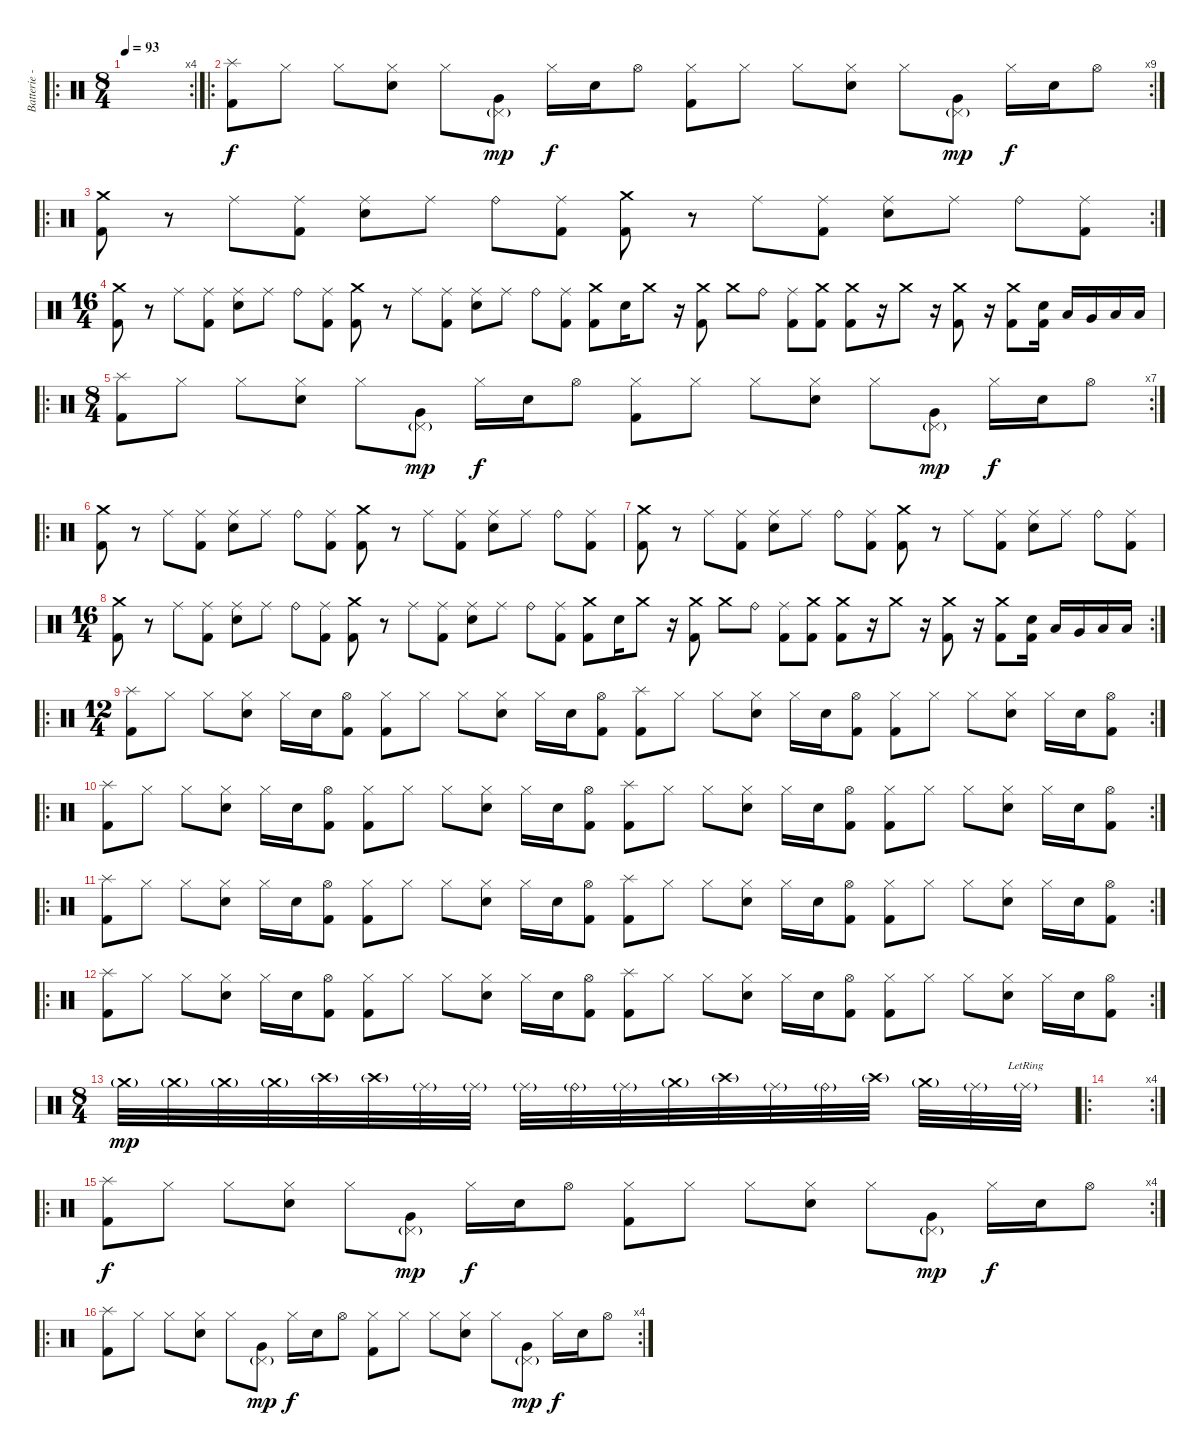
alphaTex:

\track ("Batterie - " "Batterie -") {instrument percussion}
\staff {score}
\articulation defaults
\ro
\rc 4
\ts (8 4)
\tempo 93
\clef neutral
\ks c
|
\ro
\rc 9
("Splash (hit)" "Kick (hit) 2").8 "Hi-Hat (closed)".8 "Hi-Hat (closed)".8 ("Electric Snare (hit)" "Hi-Hat (closed)").8 "Hi-Hat (closed)".8 ("Very Low Tom (hit)" "Pedal Hi-Hat (hit)"{g}).8{dy mp} "Hi-Hat (closed)".16{dy f} "Electric Snare (hit)".16 "Hi-Hat (open)".8 ("Kick (hit) 2" "Hi-Hat (closed)").8 "Hi-Hat (closed)".8 "Hi-Hat (closed)".8 ("Electric Snare (hit)" "Hi-Hat (closed)").8 "Hi-Hat (closed)".8 ("Very Low Tom (hit)" "Pedal Hi-Hat (hit)"{g}).8{dy mp} "Hi-Hat (closed)".16{dy f} "Electric Snare (hit)".16 "Hi-Hat (open)".8 |
\ro
\rc 2
("Kick (hit) 2" "Crash medium (hit)").8 r.8 "Ride (middle)".8 ("Kick (hit) 2" "Ride (middle)").8 ("Electric Snare (hit)" "Ride (middle)").8 "Ride (middle)".8 "Ride (bell)".8 ("Kick (hit) 2" "Ride (middle)").8 ("Kick (hit) 2" "Crash medium (hit)").8 r.8 "Ride (middle)".8 ("Kick (hit) 2" "Ride (middle)").8 ("Electric Snare (hit)" "Ride (middle)").8 "Ride (middle)".8 "Ride (bell)".8 ("Kick (hit) 2" "Ride (middle)").8 |
\ts (16 4)
("Kick (hit) 2" "Crash medium (hit)").8 r.8 "Ride (middle)".8 ("Kick (hit) 2" "Ride (middle)").8 ("Electric Snare (hit)" "Ride (middle)").8 "Ride (middle)".8 "Ride (bell)".8 ("Kick (hit) 2" "Ride (middle)").8 ("Kick (hit) 2" "Crash medium (hit)").8 r.8 "Ride (middle)".8 ("Kick (hit) 2" "Ride (middle)").8 ("Electric Snare (hit)" "Ride (middle)").8 "Ride (middle)".8 "Ride (bell)".8 ("Kick (hit) 2" "Ride (middle)").8 ("Kick (hit) 2" "Crash medium (hit)").8 "Snare (hit)".16 "Crash medium (hit)".8 r.16 ("Kick (hit) 2" "Crash medium (hit)").8 "Crash medium (hit)".8 "Ride (bell)".8 ("Kick (hit) 2" "Ride (middle)").8 ("Kick (hit) 2" "Crash medium (hit)").8 ("Kick (hit) 2" "Crash medium (hit)").8 r.16 "Crash medium (hit)".8 r.16 ("Crash medium (hit)" "Kick (hit) 2").8 r.16 ("Kick (hit) 2" "Crash medium (hit)").8 ("Kick (hit) 2" "Electric Snare (hit)").16 "Low Tom (hit)".16 "Very Low Tom (hit)".16 "Low Tom (hit)".16 "Low Floor Tom (hit)".16 |
\ro
\rc 7
\ts (8 4)
("Splash (hit)" "Kick (hit) 2").8 "Hi-Hat (closed)".8 "Hi-Hat (closed)".8 ("Electric Snare (hit)" "Hi-Hat (closed)").8 "Hi-Hat (closed)".8 ("Very Low Tom (hit)" "Pedal Hi-Hat (hit)"{g}).8{dy mp} "Hi-Hat (closed)".16{dy f} "Electric Snare (hit)".16 "Hi-Hat (open)".8 ("Kick (hit) 2" "Hi-Hat (closed)").8 "Hi-Hat (closed)".8 "Hi-Hat (closed)".8 ("Electric Snare (hit)" "Hi-Hat (closed)").8 "Hi-Hat (closed)".8 ("Very Low Tom (hit)" "Pedal Hi-Hat (hit)"{g}).8{dy mp} "Hi-Hat (closed)".16{dy f} "Electric Snare (hit)".16 "Hi-Hat (open)".8 |
\ro
("Kick (hit) 2" "Crash medium (hit)").8 r.8 "Ride (middle)".8 ("Kick (hit) 2" "Ride (middle)").8 ("Electric Snare (hit)" "Ride (middle)").8 "Ride (middle)".8 "Ride (bell)".8 ("Kick (hit) 2" "Ride (middle)").8 ("Kick (hit) 2" "Crash medium (hit)").8 r.8 "Ride (middle)".8 ("Kick (hit) 2" "Ride (middle)").8 ("Electric Snare (hit)" "Ride (middle)").8 "Ride (middle)".8 "Ride (bell)".8 ("Kick (hit) 2" "Ride (middle)").8 |
("Kick (hit) 2" "Crash medium (hit)").8 r.8 "Ride (middle)".8 ("Kick (hit) 2" "Ride (middle)").8 ("Electric Snare (hit)" "Ride (middle)").8 "Ride (middle)".8 "Ride (bell)".8 ("Kick (hit) 2" "Ride (middle)").8 ("Kick (hit) 2" "Crash medium (hit)").8 r.8 "Ride (middle)".8 ("Kick (hit) 2" "Ride (middle)").8 ("Electric Snare (hit)" "Ride (middle)").8 "Ride (middle)".8 "Ride (bell)".8 ("Kick (hit) 2" "Ride (middle)").8 |
\rc 2
\ts (16 4)
("Kick (hit) 2" "Crash medium (hit)").8 r.8 "Ride (middle)".8 ("Kick (hit) 2" "Ride (middle)").8 ("Electric Snare (hit)" "Ride (middle)").8 "Ride (middle)".8 "Ride (bell)".8 ("Kick (hit) 2" "Ride (middle)").8 ("Kick (hit) 2" "Crash medium (hit)").8 r.8 "Ride (middle)".8 ("Kick (hit) 2" "Ride (middle)").8 ("Electric Snare (hit)" "Ride (middle)").8 "Ride (middle)".8 "Ride (bell)".8 ("Kick (hit) 2" "Ride (middle)").8 ("Kick (hit) 2" "Crash medium (hit)").8 "Snare (hit)".16 "Crash medium (hit)".8 r.16 ("Kick (hit) 2" "Crash medium (hit)").8 "Crash medium (hit)".8 "Ride (bell)".8 ("Kick (hit) 2" "Ride (middle)").8 ("Kick (hit) 2" "Crash medium (hit)").8 ("Kick (hit) 2" "Crash medium (hit)").8 r.16 "Crash medium (hit)".8 r.16 ("Crash medium (hit)" "Kick (hit) 2").8 r.16 ("Kick (hit) 2" "Crash medium (hit)").8 ("Kick (hit) 2" "Electric Snare (hit)").16 "Low Tom (hit)".16 "Very Low Tom (hit)".16 "Low Tom (hit)".16 "Low Floor Tom (hit)".16 |
\ro
\rc 2
\ts (12 4)
("Splash (hit)" "Kick (hit) 2").8 "Hi-Hat (closed)".8 "Hi-Hat (closed)".8 ("Electric Snare (hit)" "Hi-Hat (closed)").8 "Hi-Hat (closed)".16 "Electric Snare (hit)".16 ("Kick (hit) 2" "Hi-Hat (open)").8 ("Kick (hit) 2" "Hi-Hat (closed)").8 "Hi-Hat (closed)".8 "Hi-Hat (closed)".8 ("Electric Snare (hit)" "Hi-Hat (closed)").8 "Hi-Hat (closed)".16 "Electric Snare (hit)".16 ("Kick (hit) 2" "Hi-Hat (open)").8 ("Splash (hit)" "Kick (hit) 2").8 "Hi-Hat (closed)".8 "Hi-Hat (closed)".8 ("Electric Snare (hit)" "Hi-Hat (closed)").8 "Hi-Hat (closed)".16 "Electric Snare (hit)".16 ("Kick (hit) 2" "Hi-Hat (open)").8 ("Kick (hit) 2" "Hi-Hat (closed)").8 "Hi-Hat (closed)".8 "Hi-Hat (closed)".8 ("Electric Snare (hit)" "Hi-Hat (closed)").8 "Hi-Hat (closed)".16 "Electric Snare (hit)".16 ("Kick (hit) 2" "Hi-Hat (open)").8 |
\ro
\rc 2
("Splash (hit)" "Kick (hit) 2").8 "Hi-Hat (closed)".8 "Hi-Hat (closed)".8 ("Electric Snare (hit)" "Hi-Hat (closed)").8 "Hi-Hat (closed)".16 "Electric Snare (hit)".16 ("Kick (hit) 2" "Hi-Hat (open)").8 ("Kick (hit) 2" "Hi-Hat (closed)").8 "Hi-Hat (closed)".8 "Hi-Hat (closed)".8 ("Electric Snare (hit)" "Hi-Hat (closed)").8 "Hi-Hat (closed)".16 "Electric Snare (hit)".16 ("Kick (hit) 2" "Hi-Hat (open)").8 ("Splash (hit)" "Kick (hit) 2").8 "Hi-Hat (closed)".8 "Hi-Hat (closed)".8 ("Electric Snare (hit)" "Hi-Hat (closed)").8 "Hi-Hat (closed)".16 "Electric Snare (hit)".16 ("Kick (hit) 2" "Hi-Hat (open)").8 ("Kick (hit) 2" "Hi-Hat (closed)").8 "Hi-Hat (closed)".8 "Hi-Hat (closed)".8 ("Electric Snare (hit)" "Hi-Hat (closed)").8 "Hi-Hat (closed)".16 "Electric Snare (hit)".16 ("Kick (hit) 2" "Hi-Hat (open)").8 |
\ro
\rc 2
("Splash (hit)" "Kick (hit) 2").8 "Hi-Hat (closed)".8 "Hi-Hat (closed)".8 ("Electric Snare (hit)" "Hi-Hat (closed)").8 "Hi-Hat (closed)".16 "Electric Snare (hit)".16 ("Kick (hit) 2" "Hi-Hat (open)").8 ("Kick (hit) 2" "Hi-Hat (closed)").8 "Hi-Hat (closed)".8 "Hi-Hat (closed)".8 ("Electric Snare (hit)" "Hi-Hat (closed)").8 "Hi-Hat (closed)".16 "Electric Snare (hit)".16 ("Kick (hit) 2" "Hi-Hat (open)").8 ("Splash (hit)" "Kick (hit) 2").8 "Hi-Hat (closed)".8 "Hi-Hat (closed)".8 ("Electric Snare (hit)" "Hi-Hat (closed)").8 "Hi-Hat (closed)".16 "Electric Snare (hit)".16 ("Kick (hit) 2" "Hi-Hat (open)").8 ("Kick (hit) 2" "Hi-Hat (closed)").8 "Hi-Hat (closed)".8 "Hi-Hat (closed)".8 ("Electric Snare (hit)" "Hi-Hat (closed)").8 "Hi-Hat (closed)".16 "Electric Snare (hit)".16 ("Kick (hit) 2" "Hi-Hat (open)").8 |
\ro
\rc 2
("Splash (hit)" "Kick (hit) 2").8 "Hi-Hat (closed)".8 "Hi-Hat (closed)".8 ("Electric Snare (hit)" "Hi-Hat (closed)").8 "Hi-Hat (closed)".16 "Electric Snare (hit)".16 ("Kick (hit) 2" "Hi-Hat (open)").8 ("Kick (hit) 2" "Hi-Hat (closed)").8 "Hi-Hat (closed)".8 "Hi-Hat (closed)".8 ("Electric Snare (hit)" "Hi-Hat (closed)").8 "Hi-Hat (closed)".16 "Electric Snare (hit)".16 ("Kick (hit) 2" "Hi-Hat (open)").8 ("Splash (hit)" "Kick (hit) 2").8 "Hi-Hat (closed)".8 "Hi-Hat (closed)".8 ("Electric Snare (hit)" "Hi-Hat (closed)").8 "Hi-Hat (closed)".16 "Electric Snare (hit)".16 ("Kick (hit) 2" "Hi-Hat (open)").8 ("Kick (hit) 2" "Hi-Hat (closed)").8 "Hi-Hat (closed)".8 "Hi-Hat (closed)".8 ("Electric Snare (hit)" "Hi-Hat (closed)").8 "Hi-Hat (closed)".16 "Electric Snare (hit)".16 ("Kick (hit) 2" "Hi-Hat (open)").8 |
\ts (8 4)
"Crash medium (hit)"{g}.32{dy mp} "Crash medium (hit)"{g}.32 "Crash medium (hit)"{g}.32 "Crash medium (hit)"{g}.32 "Crash high (hit)"{g}.32 "Crash high (hit)"{g}.32 "Ride (middle)"{g}.32 "Ride (middle)"{g}.32 "Ride (middle)"{g}.32 "Ride (bell)"{g}.32 "Ride (middle)"{g}.32 "Crash medium (hit)"{g}.32 "Crash high (hit)"{g}.32 "Ride (middle)"{g}.32 "Ride (bell)"{g}.32 "Crash high (hit)"{g}.32 "Crash medium (hit)"{g}.32 "Ride (middle)"{g}.32 "Ride (middle)"{g lr}.32 |
\ro
\rc 4
|
\ro
\rc 4
("Splash (hit)" "Kick (hit) 2").8{dy f} "Hi-Hat (closed)".8 "Hi-Hat (closed)".8 ("Electric Snare (hit)" "Hi-Hat (closed)").8 "Hi-Hat (closed)".8 ("Very Low Tom (hit)" "Pedal Hi-Hat (hit)"{g}).8{dy mp} "Hi-Hat (closed)".16{dy f} "Electric Snare (hit)".16 "Hi-Hat (open)".8 ("Kick (hit) 2" "Hi-Hat (closed)").8 "Hi-Hat (closed)".8 "Hi-Hat (closed)".8 ("Electric Snare (hit)" "Hi-Hat (closed)").8 "Hi-Hat (closed)".8 ("Very Low Tom (hit)" "Pedal Hi-Hat (hit)"{g}).8{dy mp} "Hi-Hat (closed)".16{dy f} "Electric Snare (hit)".16 "Hi-Hat (open)".8 |
\ro
\rc 4
("Splash (hit)" "Kick (hit) 2").8 "Hi-Hat (closed)".8 "Hi-Hat (closed)".8 ("Electric Snare (hit)" "Hi-Hat (closed)").8 "Hi-Hat (closed)".8 ("Very Low Tom (hit)" "Pedal Hi-Hat (hit)"{g}).8{dy mp} "Hi-Hat (closed)".16{dy f} "Electric Snare (hit)".16 "Hi-Hat (open)".8 ("Kick (hit) 2" "Hi-Hat (closed)").8 "Hi-Hat (closed)".8 "Hi-Hat (closed)".8 ("Electric Snare (hit)" "Hi-Hat (closed)").8 "Hi-Hat (closed)".8 ("Very Low Tom (hit)" "Pedal Hi-Hat (hit)"{g}).8{dy mp} "Hi-Hat (closed)".16{dy f} "Electric Snare (hit)".16 "Hi-Hat (open)".8
